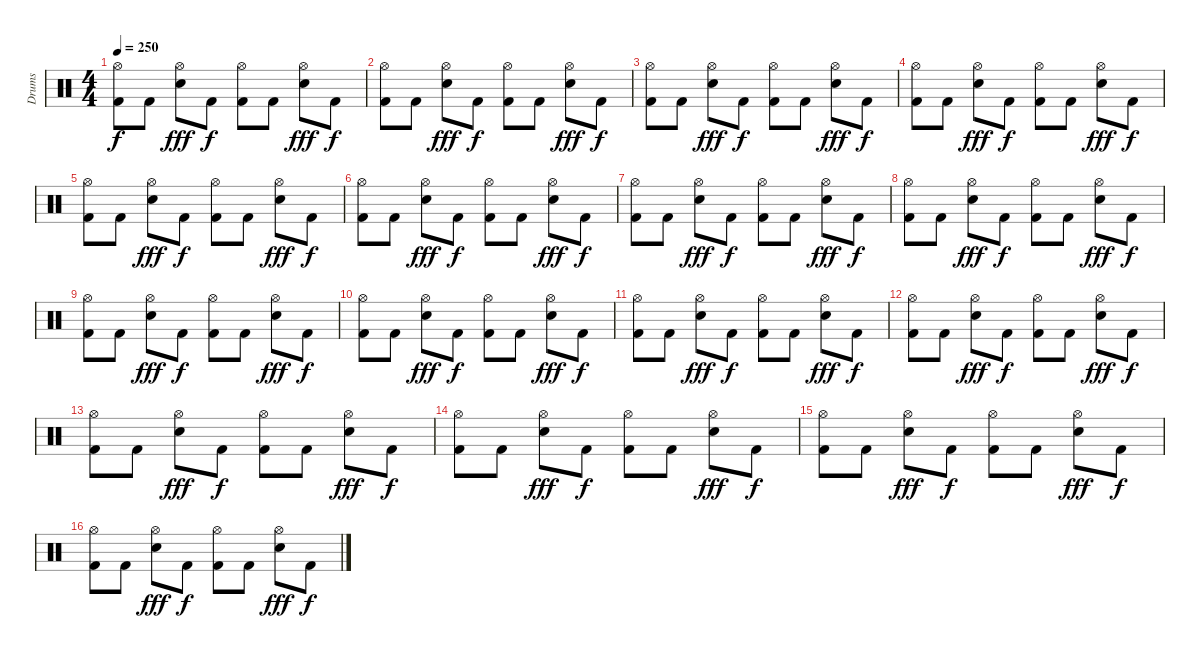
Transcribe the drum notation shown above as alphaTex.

\track ("Drums" "Drums") {instrument percussion}
\staff {score}
\articulation defaults
\ts (4 4)
\tempo 250
\clef neutral
\ks c
("Kick (hit) 2" "Hi-Hat (open)").8{dy f} "Kick (hit) 2".8 ("Hi-Hat (open)" "Snare (hit) 2").8{dy fff} "Kick (hit) 2".8{dy f} ("Hi-Hat (open)" "Kick (hit) 2").8 "Kick (hit) 2".8 ("Hi-Hat (open)" "Snare (hit) 2").8{dy fff} "Kick (hit) 2".8{dy f} |
("Kick (hit) 2" "Hi-Hat (open)").8 "Kick (hit) 2".8 ("Hi-Hat (open)" "Snare (hit) 2").8{dy fff} "Kick (hit) 2".8{dy f} ("Hi-Hat (open)" "Kick (hit) 2").8 "Kick (hit) 2".8 ("Hi-Hat (open)" "Snare (hit) 2").8{dy fff} "Kick (hit) 2".8{dy f} |
("Kick (hit) 2" "Hi-Hat (open)").8 "Kick (hit) 2".8 ("Hi-Hat (open)" "Snare (hit) 2").8{dy fff} "Kick (hit) 2".8{dy f} ("Hi-Hat (open)" "Kick (hit) 2").8 "Kick (hit) 2".8 ("Hi-Hat (open)" "Snare (hit) 2").8{dy fff} "Kick (hit) 2".8{dy f} |
("Kick (hit) 2" "Hi-Hat (open)").8 "Kick (hit) 2".8 ("Hi-Hat (open)" "Snare (hit) 2").8{dy fff} "Kick (hit) 2".8{dy f} ("Hi-Hat (open)" "Kick (hit) 2").8 "Kick (hit) 2".8 ("Hi-Hat (open)" "Snare (hit) 2").8{dy fff} "Kick (hit) 2".8{dy f} |
("Kick (hit) 2" "Hi-Hat (open)").8 "Kick (hit) 2".8 ("Hi-Hat (open)" "Snare (hit) 2").8{dy fff} "Kick (hit) 2".8{dy f} ("Hi-Hat (open)" "Kick (hit) 2").8 "Kick (hit) 2".8 ("Hi-Hat (open)" "Snare (hit) 2").8{dy fff} "Kick (hit) 2".8{dy f} |
("Kick (hit) 2" "Hi-Hat (open)").8 "Kick (hit) 2".8 ("Hi-Hat (open)" "Snare (hit) 2").8{dy fff} "Kick (hit) 2".8{dy f} ("Hi-Hat (open)" "Kick (hit) 2").8 "Kick (hit) 2".8 ("Hi-Hat (open)" "Snare (hit) 2").8{dy fff} "Kick (hit) 2".8{dy f} |
("Kick (hit) 2" "Hi-Hat (open)").8 "Kick (hit) 2".8 ("Hi-Hat (open)" "Snare (hit) 2").8{dy fff} "Kick (hit) 2".8{dy f} ("Hi-Hat (open)" "Kick (hit) 2").8 "Kick (hit) 2".8 ("Hi-Hat (open)" "Snare (hit) 2").8{dy fff} "Kick (hit) 2".8{dy f} |
("Kick (hit) 2" "Hi-Hat (open)").8 "Kick (hit) 2".8 ("Hi-Hat (open)" "Snare (hit) 2").8{dy fff} "Kick (hit) 2".8{dy f} ("Hi-Hat (open)" "Kick (hit) 2").8 "Kick (hit) 2".8 ("Hi-Hat (open)" "Snare (hit) 2").8{dy fff} "Kick (hit) 2".8{dy f} |
("Kick (hit) 2" "Hi-Hat (open)").8 "Kick (hit) 2".8 ("Hi-Hat (open)" "Snare (hit) 2").8{dy fff} "Kick (hit) 2".8{dy f} ("Hi-Hat (open)" "Kick (hit) 2").8 "Kick (hit) 2".8 ("Hi-Hat (open)" "Snare (hit) 2").8{dy fff} "Kick (hit) 2".8{dy f} |
("Kick (hit) 2" "Hi-Hat (open)").8 "Kick (hit) 2".8 ("Hi-Hat (open)" "Snare (hit) 2").8{dy fff} "Kick (hit) 2".8{dy f} ("Hi-Hat (open)" "Kick (hit) 2").8 "Kick (hit) 2".8 ("Hi-Hat (open)" "Snare (hit) 2").8{dy fff} "Kick (hit) 2".8{dy f} |
("Kick (hit) 2" "Hi-Hat (open)").8 "Kick (hit) 2".8 ("Hi-Hat (open)" "Snare (hit) 2").8{dy fff} "Kick (hit) 2".8{dy f} ("Hi-Hat (open)" "Kick (hit) 2").8 "Kick (hit) 2".8 ("Hi-Hat (open)" "Snare (hit) 2").8{dy fff} "Kick (hit) 2".8{dy f} |
("Kick (hit) 2" "Hi-Hat (open)").8 "Kick (hit) 2".8 ("Hi-Hat (open)" "Snare (hit) 2").8{dy fff} "Kick (hit) 2".8{dy f} ("Hi-Hat (open)" "Kick (hit) 2").8 "Kick (hit) 2".8 ("Hi-Hat (open)" "Snare (hit) 2").8{dy fff} "Kick (hit) 2".8{dy f} |
("Kick (hit) 2" "Hi-Hat (open)").8 "Kick (hit) 2".8 ("Hi-Hat (open)" "Snare (hit) 2").8{dy fff} "Kick (hit) 2".8{dy f} ("Hi-Hat (open)" "Kick (hit) 2").8 "Kick (hit) 2".8 ("Hi-Hat (open)" "Snare (hit) 2").8{dy fff} "Kick (hit) 2".8{dy f} |
("Kick (hit) 2" "Hi-Hat (open)").8 "Kick (hit) 2".8 ("Hi-Hat (open)" "Snare (hit) 2").8{dy fff} "Kick (hit) 2".8{dy f} ("Hi-Hat (open)" "Kick (hit) 2").8 "Kick (hit) 2".8 ("Hi-Hat (open)" "Snare (hit) 2").8{dy fff} "Kick (hit) 2".8{dy f} |
("Kick (hit) 2" "Hi-Hat (open)").8 "Kick (hit) 2".8 ("Hi-Hat (open)" "Snare (hit) 2").8{dy fff} "Kick (hit) 2".8{dy f} ("Hi-Hat (open)" "Kick (hit) 2").8 "Kick (hit) 2".8 ("Hi-Hat (open)" "Snare (hit) 2").8{dy fff} "Kick (hit) 2".8{dy f} |
("Hi-Hat (open)" "Kick (hit) 2").8 "Kick (hit) 2".8 ("Hi-Hat (open)" "Snare (hit) 2").8{dy fff} "Kick (hit) 2".8{dy f} ("Hi-Hat (open)" "Kick (hit) 2").8 "Kick (hit) 2".8 ("Hi-Hat (open)" "Snare (hit) 2").8{dy fff volume 14 balance 9} "Kick (hit) 2".8{dy f}
